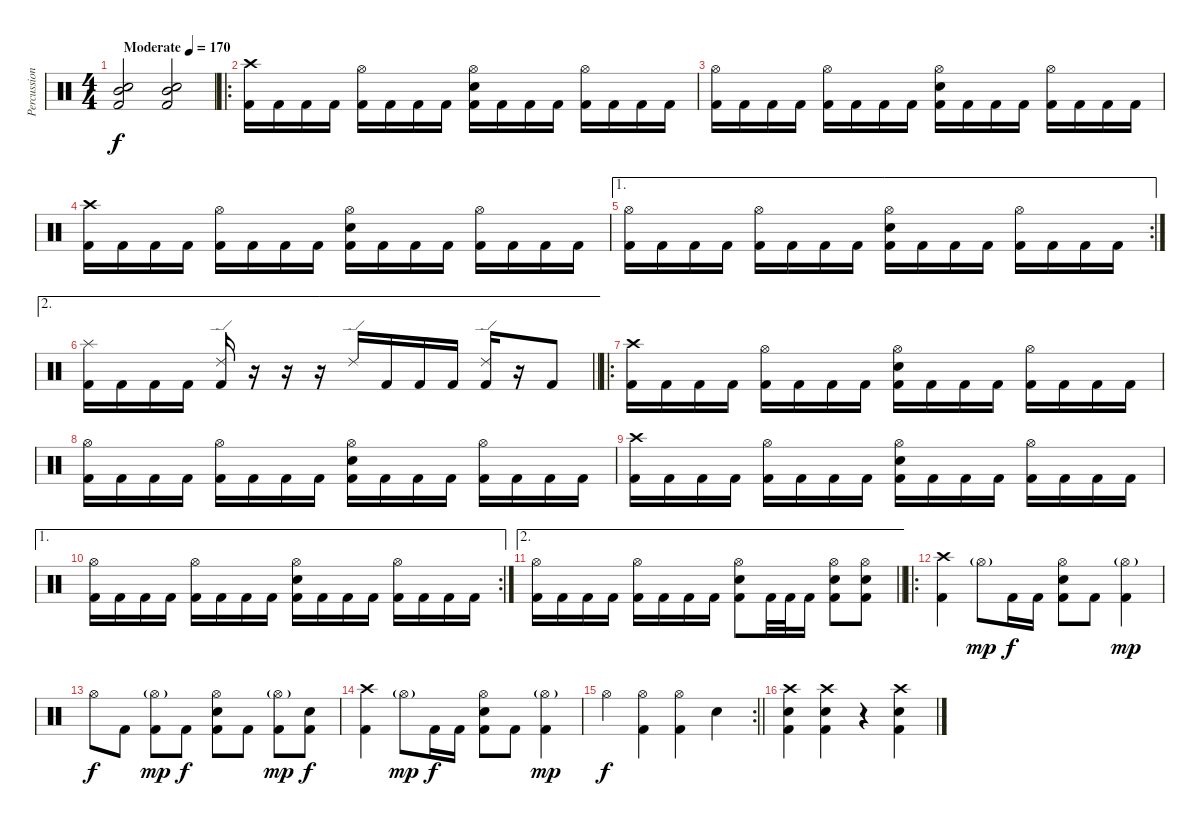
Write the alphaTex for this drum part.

\track ("Percussion" "Percussion") {instrument percussion}
\staff {score}
\articulation defaults
\ts (4 4)
\tempo (170 "Moderate")
\clef neutral
\ks c
("Electric Snare (hit)" "Mid Tom (hit)" "Kick (hit) 2").2{dy f} ("Electric Snare (hit)" "Mid Tom (hit)" "Kick (hit) 2").2 |
\ro
("Crash high (hit)" "Kick (hit) 2").16 "Kick (hit) 2".16 "Kick (hit) 2".16 "Kick (hit) 2".16 ("Hi-Hat (open)" "Kick (hit) 2").16 "Kick (hit) 2".16 "Kick (hit) 2".16 "Kick (hit) 2".16 ("Hi-Hat (open)" "Electric Snare (hit)" "Kick (hit) 2").16 "Kick (hit) 2".16 "Kick (hit) 2".16 "Kick (hit) 2".16 ("Hi-Hat (open)" "Kick (hit) 2").16 "Kick (hit) 2".16 "Kick (hit) 2".16 "Kick (hit) 2".16 |
("Hi-Hat (open)" "Kick (hit) 2").16 "Kick (hit) 2".16 "Kick (hit) 2".16 "Kick (hit) 2".16 ("Hi-Hat (open)" "Kick (hit) 2").16 "Kick (hit) 2".16 "Kick (hit) 2".16 "Kick (hit) 2".16 ("Hi-Hat (open)" "Electric Snare (hit)" "Kick (hit) 2").16 "Kick (hit) 2".16 "Kick (hit) 2".16 "Kick (hit) 2".16 ("Hi-Hat (open)" "Kick (hit) 2").16 "Kick (hit) 2".16 "Kick (hit) 2".16 "Kick (hit) 2".16 |
("Crash high (hit)" "Kick (hit) 2").16 "Kick (hit) 2".16 "Kick (hit) 2".16 "Kick (hit) 2".16 ("Hi-Hat (open)" "Kick (hit) 2").16 "Kick (hit) 2".16 "Kick (hit) 2".16 "Kick (hit) 2".16 ("Hi-Hat (open)" "Electric Snare (hit)" "Kick (hit) 2").16 "Kick (hit) 2".16 "Kick (hit) 2".16 "Kick (hit) 2".16 ("Hi-Hat (open)" "Kick (hit) 2").16 "Kick (hit) 2".16 "Kick (hit) 2".16 "Kick (hit) 2".16 |
\ae 1
\rc 2
("Hi-Hat (open)" "Kick (hit) 2").16 "Kick (hit) 2".16 "Kick (hit) 2".16 "Kick (hit) 2".16 ("Hi-Hat (open)" "Kick (hit) 2").16 "Kick (hit) 2".16 "Kick (hit) 2".16 "Kick (hit) 2".16 ("Hi-Hat (open)" "Electric Snare (hit)" "Kick (hit) 2").16 "Kick (hit) 2".16 "Kick (hit) 2".16 "Kick (hit) 2".16 ("Hi-Hat (open)" "Kick (hit) 2").16 "Kick (hit) 2".16 "Kick (hit) 2".16 "Kick (hit) 2".16 |
\ae 2
\barLineRight lightlight
("Splash (hit)" "Kick (hit) 2").16 "Kick (hit) 2".16 "Kick (hit) 2".16 "Kick (hit) 2".16 ("Ride (edge) 2" "Kick (hit) 2").16 r.16 r.16 r.16 "Ride (edge) 2".16 "Kick (hit) 2".16 "Kick (hit) 2".16 "Kick (hit) 2".16 ("Ride (edge) 2" "Kick (hit) 2").16 r.16 "Kick (hit) 2".8 |
\ro
\section ("" "")
("Crash high (hit)" "Kick (hit) 2").16 "Kick (hit) 2".16 "Kick (hit) 2".16 "Kick (hit) 2".16 ("Hi-Hat (open)" "Kick (hit) 2").16 "Kick (hit) 2".16 "Kick (hit) 2".16 "Kick (hit) 2".16 ("Hi-Hat (open)" "Electric Snare (hit)" "Kick (hit) 2").16 "Kick (hit) 2".16 "Kick (hit) 2".16 "Kick (hit) 2".16 ("Hi-Hat (open)" "Kick (hit) 2").16 "Kick (hit) 2".16 "Kick (hit) 2".16 "Kick (hit) 2".16 |
("Hi-Hat (open)" "Kick (hit) 2").16 "Kick (hit) 2".16 "Kick (hit) 2".16 "Kick (hit) 2".16 ("Hi-Hat (open)" "Kick (hit) 2").16 "Kick (hit) 2".16 "Kick (hit) 2".16 "Kick (hit) 2".16 ("Hi-Hat (open)" "Electric Snare (hit)" "Kick (hit) 2").16 "Kick (hit) 2".16 "Kick (hit) 2".16 "Kick (hit) 2".16 ("Hi-Hat (open)" "Kick (hit) 2").16 "Kick (hit) 2".16 "Kick (hit) 2".16 "Kick (hit) 2".16 |
("Crash high (hit)" "Kick (hit) 2").16 "Kick (hit) 2".16 "Kick (hit) 2".16 "Kick (hit) 2".16 ("Hi-Hat (open)" "Kick (hit) 2").16 "Kick (hit) 2".16 "Kick (hit) 2".16 "Kick (hit) 2".16 ("Hi-Hat (open)" "Electric Snare (hit)" "Kick (hit) 2").16 "Kick (hit) 2".16 "Kick (hit) 2".16 "Kick (hit) 2".16 ("Hi-Hat (open)" "Kick (hit) 2").16 "Kick (hit) 2".16 "Kick (hit) 2".16 "Kick (hit) 2".16 |
\ae 1
\rc 2
("Hi-Hat (open)" "Kick (hit) 2").16 "Kick (hit) 2".16 "Kick (hit) 2".16 "Kick (hit) 2".16 ("Hi-Hat (open)" "Kick (hit) 2").16 "Kick (hit) 2".16 "Kick (hit) 2".16 "Kick (hit) 2".16 ("Hi-Hat (open)" "Electric Snare (hit)" "Kick (hit) 2").16 "Kick (hit) 2".16 "Kick (hit) 2".16 "Kick (hit) 2".16 ("Hi-Hat (open)" "Kick (hit) 2").16 "Kick (hit) 2".16 "Kick (hit) 2".16 "Kick (hit) 2".16 |
\ae 2
\barLineRight lightlight
("Hi-Hat (open)" "Kick (hit) 2").16 "Kick (hit) 2".16 "Kick (hit) 2".16 "Kick (hit) 2".16 ("Hi-Hat (open)" "Kick (hit) 2").16 "Kick (hit) 2".16 "Kick (hit) 2".16 "Kick (hit) 2".16 ("Hi-Hat (open)" "Electric Snare (hit)" "Kick (hit) 2").8 "Kick (hit) 2".32 "Kick (hit) 2".32 "Kick (hit) 2".16 ("Hi-Hat (open)" "Electric Snare (hit)" "Kick (hit) 2").8 ("Hi-Hat (open)" "Electric Snare (hit)" "Kick (hit) 2").8 |
\ro
\section ("" "")
("Crash high (hit)" "Kick (hit) 2").4 "Hi-Hat (open)"{g}.8{dy mp} "Kick (hit) 2".16{dy f} "Kick (hit) 2".16 ("Hi-Hat (open)" "Electric Snare (hit)" "Kick (hit) 2").8 "Kick (hit) 2".8 ("Hi-Hat (open)"{g} "Kick (hit) 2").4{dy mp} |
"Hi-Hat (open)".8{dy f} "Kick (hit) 2".8 ("Hi-Hat (open)"{g} "Kick (hit) 2").8{dy mp} "Kick (hit) 2".8{dy f} ("Hi-Hat (open)" "Electric Snare (hit)" "Kick (hit) 2").8 "Kick (hit) 2".8 ("Hi-Hat (open)"{g} "Kick (hit) 2").8{dy mp} ("Electric Snare (hit)" "Kick (hit) 2").8{dy f} |
("Crash high (hit)" "Kick (hit) 2").4 "Hi-Hat (open)"{g}.8{dy mp} "Kick (hit) 2".16{dy f} "Kick (hit) 2".16 ("Hi-Hat (open)" "Electric Snare (hit)" "Kick (hit) 2").8 "Kick (hit) 2".8 ("Hi-Hat (open)"{g} "Kick (hit) 2").4{dy mp} |
\rc 2
\barLineRight lightlight "Hi-Hat (open)".4{dy f}
("Hi-Hat (open)" "Kick (hit) 2").4 ("Hi-Hat (open)" "Kick (hit) 2").4 "Electric Snare (hit)".4 |
\section ("" "")
("Crash high (hit)" "Electric Snare (hit)" "Kick (hit) 2").4 ("Crash high (hit)" "Electric Snare (hit)" "Kick (hit) 2").4 r.4 ("Crash high (hit)" "Electric Snare (hit)" "Kick (hit) 2").4
